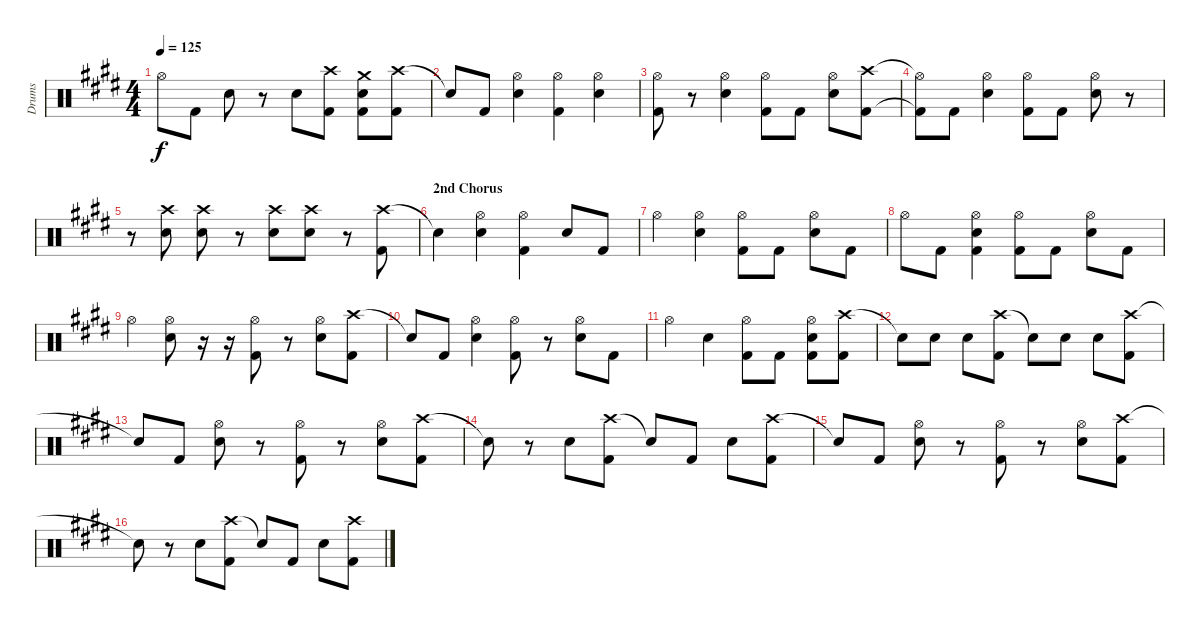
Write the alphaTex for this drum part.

\track ("Drums" "Drums") {instrument percussion}
\staff {score}
\articulation defaults
\ts (4 4)
\tempo 125
\clef neutral
\ks e "Hi-Hat (open)".8{dy f} "Kick (hit) 2".8 "Electric Snare (hit)".8
r.8 "Electric Snare (hit)".8 ("Crash high (hit)" "Kick (hit) 2").8 ("Crash medium (hit)" "Electric Snare (hit)" "Kick (hit) 2").8 ("Crash high (hit)" "Kick (hit) 2").8 |
"Snare (hit)"{t}.8 "Kick (hit) 2".8 ("Hi-Hat (open)" "Electric Snare (hit)").4 ("Hi-Hat (open)" "Kick (hit) 2").4 ("Hi-Hat (open)" "Electric Snare (hit)").4 |
("Hi-Hat (open)" "Kick (hit) 2").8 r.8 ("Hi-Hat (open)" "Electric Snare (hit)").4 ("Hi-Hat (open)" "Kick (hit) 2").8 "Kick (hit) 2".8 ("Hi-Hat (open)" "Electric Snare (hit)").8 ("Crash high (hit)" "Kick (hit) 2").8 |
("Hi-Hat (open)"{t} "Kick (hit) 2"{t}).8 "Kick (hit) 2".8 ("Hi-Hat (open)" "Electric Snare (hit)").4 ("Hi-Hat (open)" "Kick (hit) 2").8 "Kick (hit) 2".8 ("Hi-Hat (open)" "Electric Snare (hit)").8 r.8 |
r.8 ("Crash high (hit)" "Electric Snare (hit)").8 ("Crash high (hit)" "Electric Snare (hit)").8 r.8 ("Crash high (hit)" "Electric Snare (hit)").8 ("Crash high (hit)" "Electric Snare (hit)").8 r.8 ("Crash high (hit)" "Kick (hit) 2").8 |
\section ("" "2nd Chorus")
"Snare (hit)"{t}.4 ("Hi-Hat (open)" "Electric Snare (hit)").4 ("Hi-Hat (open)" "Kick (hit) 2").4 "Electric Snare (hit)".8 "Kick (hit) 2".8 |
"Hi-Hat (open)".4 ("Hi-Hat (open)" "Electric Snare (hit)").4 ("Hi-Hat (open)" "Kick (hit) 2").8 "Kick (hit) 2".8 ("Hi-Hat (open)" "Electric Snare (hit)").8 "Kick (hit) 2".8 |
"Hi-Hat (open)".8 "Kick (hit) 2".8 ("Hi-Hat (open)" "Electric Snare (hit)" "Kick (hit) 2").4 ("Hi-Hat (open)" "Kick (hit) 2").8 "Kick (hit) 2".8 ("Hi-Hat (open)" "Electric Snare (hit)").8 "Kick (hit) 2".8 |
"Hi-Hat (open)".4 ("Hi-Hat (open)" "Electric Snare (hit)").8 r.16 r.16 ("Hi-Hat (open)" "Kick (hit) 2").8 r.8 ("Hi-Hat (open)" "Electric Snare (hit)").8 ("Crash high (hit)" "Kick (hit) 2").8 |
"Snare (hit)"{t}.8 "Kick (hit) 2".8 ("Hi-Hat (open)" "Electric Snare (hit)").4 ("Hi-Hat (open)" "Kick (hit) 2").8 r.8 ("Hi-Hat (open)" "Electric Snare (hit)").8 "Kick (hit) 2".8 |
"Hi-Hat (open)".4 "Electric Snare (hit)".4 ("Hi-Hat (open)" "Kick (hit) 2").8 "Kick (hit) 2".8 ("Hi-Hat (open)" "Electric Snare (hit)" "Kick (hit) 2").8 ("Crash high (hit)" "Kick (hit) 2").8 |
"Snare (hit)"{t}.8 "Electric Snare (hit)".8 "Electric Snare (hit)".8 ("Crash high (hit)" "Kick (hit) 2").8 "Snare (hit)"{t}.8 "Electric Snare (hit)".8 "Electric Snare (hit)".8 ("Crash high (hit)" "Kick (hit) 2").8 |
"Snare (hit)"{t}.8 "Kick (hit) 2".8 ("Hi-Hat (open)" "Electric Snare (hit)").8 r.8 ("Hi-Hat (open)" "Kick (hit) 2").8 r.8 ("Hi-Hat (open)" "Electric Snare (hit)").8 ("Crash high (hit)" "Kick (hit) 2").8 |
"Snare (hit)"{t}.8 r.8 "Electric Snare (hit)".8 ("Crash high (hit)" "Kick (hit) 2").8 "Snare (hit)"{t}.8 "Kick (hit) 2".8 "Electric Snare (hit)".8 ("Crash high (hit)" "Kick (hit) 2").8 |
"Snare (hit)"{t}.8 "Kick (hit) 2".8 ("Hi-Hat (open)" "Electric Snare (hit)").8 r.8 ("Hi-Hat (open)" "Kick (hit) 2").8 r.8 ("Hi-Hat (open)" "Electric Snare (hit)").8 ("Crash high (hit)" "Kick (hit) 2").8 |
"Snare (hit)"{t}.8 r.8 "Electric Snare (hit)".8 ("Crash high (hit)" "Kick (hit) 2").8 "Snare (hit)"{t}.8 "Kick (hit) 2".8 "Electric Snare (hit)".8 ("Crash high (hit)" "Kick (hit) 2").8
